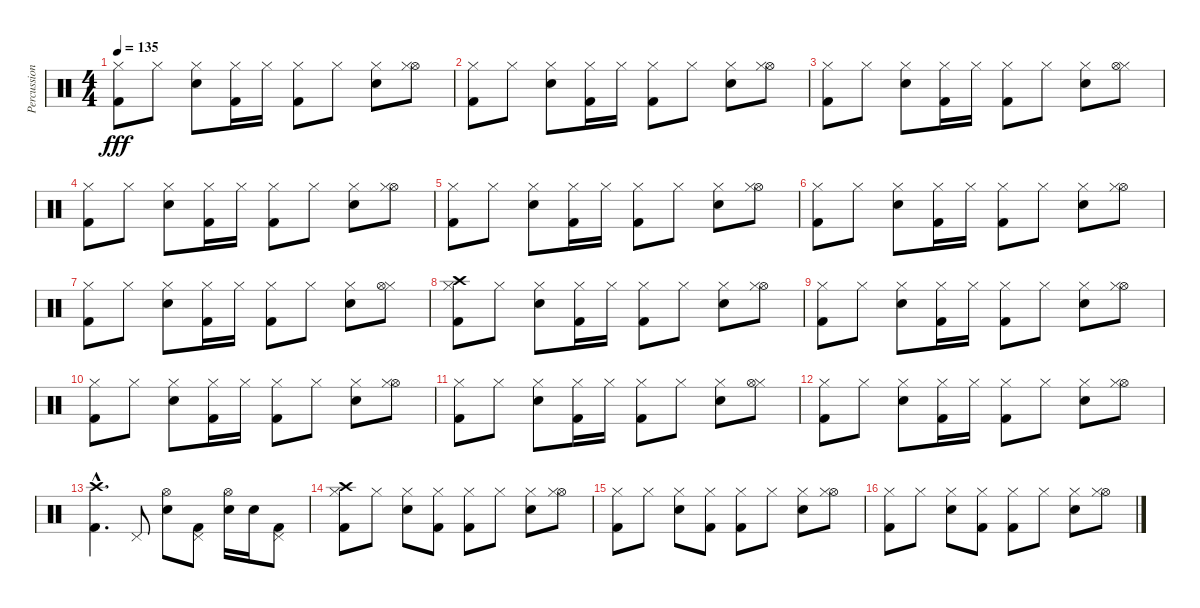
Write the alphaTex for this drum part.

\track ("Percussion" "Percussion") {instrument percussion}
\staff {score}
\articulation defaults
\ts (4 4)
\tempo 135
\clef neutral
\ks c
("Hi-Hat (closed)" "Kick (hit) 2").8{dy fff} "Hi-Hat (closed)".8 ("Hi-Hat (closed)" "Snare (hit) 2").8 ("Kick (hit) 2" "Hi-Hat (closed)").16 "Hi-Hat (closed)".16 ("Hi-Hat (closed)" "Kick (hit) 2").8 "Hi-Hat (closed)".8 ("Hi-Hat (closed)" "Snare (hit) 2").8 ("Hi-Hat (open)" "Hi-Hat (closed)").8 |
("Hi-Hat (closed)" "Kick (hit) 2").8 "Hi-Hat (closed)".8 ("Snare (hit) 2" "Hi-Hat (closed)").8 ("Hi-Hat (closed)" "Kick (hit) 2").16 "Hi-Hat (closed)".16 ("Hi-Hat (closed)" "Kick (hit) 2").8 "Hi-Hat (closed)".8 ("Hi-Hat (closed)" "Snare (hit) 2").8 ("Hi-Hat (open)" "Hi-Hat (closed)").8 |
("Hi-Hat (closed)" "Kick (hit) 2").8 "Hi-Hat (closed)".8 ("Hi-Hat (closed)" "Snare (hit) 2").8 ("Kick (hit) 2" "Hi-Hat (closed)").16 "Hi-Hat (closed)".16 ("Hi-Hat (closed)" "Kick (hit) 2").8 "Hi-Hat (closed)".8 ("Snare (hit) 2" "Hi-Hat (closed)").8 ("Hi-Hat (closed)" "Hi-Hat (open)").8 |
("Hi-Hat (closed)" "Kick (hit) 2").8 "Hi-Hat (closed)".8 ("Hi-Hat (closed)" "Snare (hit) 2").8 ("Hi-Hat (closed)" "Kick (hit) 2").16 "Hi-Hat (closed)".16 ("Hi-Hat (closed)" "Kick (hit) 2").8 "Hi-Hat (closed)".8 ("Snare (hit) 2" "Hi-Hat (closed)").8 ("Hi-Hat (open)" "Hi-Hat (closed)").8 |
("Hi-Hat (closed)" "Kick (hit) 2").8 "Hi-Hat (closed)".8 ("Hi-Hat (closed)" "Snare (hit) 2").8 ("Kick (hit) 2" "Hi-Hat (closed)").16 "Hi-Hat (closed)".16 ("Hi-Hat (closed)" "Kick (hit) 2").8 "Hi-Hat (closed)".8 ("Hi-Hat (closed)" "Snare (hit) 2").8 ("Hi-Hat (open)" "Hi-Hat (closed)").8 |
("Hi-Hat (closed)" "Kick (hit) 2").8 "Hi-Hat (closed)".8 ("Snare (hit) 2" "Hi-Hat (closed)").8 ("Hi-Hat (closed)" "Kick (hit) 2").16 "Hi-Hat (closed)".16 ("Hi-Hat (closed)" "Kick (hit) 2").8 "Hi-Hat (closed)".8 ("Hi-Hat (closed)" "Snare (hit) 2").8 ("Hi-Hat (open)" "Hi-Hat (closed)").8 |
("Hi-Hat (closed)" "Kick (hit) 2").8 "Hi-Hat (closed)".8 ("Hi-Hat (closed)" "Snare (hit) 2").8 ("Kick (hit) 2" "Hi-Hat (closed)").16 "Hi-Hat (closed)".16 ("Hi-Hat (closed)" "Kick (hit) 2").8 "Hi-Hat (closed)".8 ("Snare (hit) 2" "Hi-Hat (closed)").8 ("Hi-Hat (closed)" "Hi-Hat (open)").8 |
("Crash high (hit)" "Hi-Hat (closed)" "Kick (hit) 2").8 "Hi-Hat (closed)".8 ("Hi-Hat (closed)" "Snare (hit) 2").8 ("Hi-Hat (closed)" "Kick (hit) 2").16 "Hi-Hat (closed)".16 ("Hi-Hat (closed)" "Kick (hit) 2").8 "Hi-Hat (closed)".8 ("Snare (hit) 2" "Hi-Hat (closed)").8 ("Hi-Hat (open)" "Hi-Hat (closed)").8 |
("Hi-Hat (closed)" "Kick (hit) 2").8 "Hi-Hat (closed)".8 ("Hi-Hat (closed)" "Snare (hit) 2").8 ("Kick (hit) 2" "Hi-Hat (closed)").16 "Hi-Hat (closed)".16 ("Hi-Hat (closed)" "Kick (hit) 2").8 "Hi-Hat (closed)".8 ("Hi-Hat (closed)" "Snare (hit) 2").8 ("Hi-Hat (open)" "Hi-Hat (closed)").8 |
("Hi-Hat (closed)" "Kick (hit) 2").8 "Hi-Hat (closed)".8 ("Snare (hit) 2" "Hi-Hat (closed)").8 ("Hi-Hat (closed)" "Kick (hit) 2").16 "Hi-Hat (closed)".16 ("Hi-Hat (closed)" "Kick (hit) 2").8 "Hi-Hat (closed)".8 ("Hi-Hat (closed)" "Snare (hit) 2").8 ("Hi-Hat (open)" "Hi-Hat (closed)").8 |
("Hi-Hat (closed)" "Kick (hit) 2").8 "Hi-Hat (closed)".8 ("Hi-Hat (closed)" "Snare (hit) 2").8 ("Kick (hit) 2" "Hi-Hat (closed)").16 "Hi-Hat (closed)".16 ("Hi-Hat (closed)" "Kick (hit) 2").8 "Hi-Hat (closed)".8 ("Snare (hit) 2" "Hi-Hat (closed)").8 ("Hi-Hat (closed)" "Hi-Hat (open)").8 |
("Hi-Hat (closed)" "Kick (hit) 2").8 "Hi-Hat (closed)".8 ("Hi-Hat (closed)" "Snare (hit) 2").8 ("Hi-Hat (closed)" "Kick (hit) 2").16 "Hi-Hat (closed)".16 ("Hi-Hat (closed)" "Kick (hit) 2").8 "Hi-Hat (closed)".8 ("Snare (hit) 2" "Hi-Hat (closed)").8 ("Hi-Hat (open)" "Hi-Hat (closed)").8 |
("Crash high (hit)"{hac} "Kick (hit) 2"{hac}).4{d} "Pedal Hi-Hat (hit)".8 ("Snare (hit) 2" "Hi-Hat (open)").8 ("Kick (hit) 2" "Pedal Hi-Hat (hit)").8 ("Hi-Hat (open)" "Snare (hit) 2").16 "Snare (hit) 2".16 ("Kick (hit) 2" "Pedal Hi-Hat (hit)").8 |
("Crash high (hit)" "Hi-Hat (closed)" "Kick (hit) 2").8 "Hi-Hat (closed)".8 ("Hi-Hat (closed)" "Snare (hit) 2").8 ("Hi-Hat (closed)" "Kick (hit) 2").8 ("Hi-Hat (closed)" "Kick (hit) 2").8 "Hi-Hat (closed)".8 ("Snare (hit) 2" "Hi-Hat (closed)").8 ("Hi-Hat (open)" "Hi-Hat (closed)").8 |
("Hi-Hat (closed)" "Kick (hit) 2").8 "Hi-Hat (closed)".8 ("Hi-Hat (closed)" "Snare (hit) 2").8 ("Kick (hit) 2" "Hi-Hat (closed)").8 ("Hi-Hat (closed)" "Kick (hit) 2").8 "Hi-Hat (closed)".8 ("Hi-Hat (closed)" "Snare (hit) 2").8 ("Hi-Hat (open)" "Hi-Hat (closed)").8 |
("Hi-Hat (closed)" "Kick (hit) 2").8 "Hi-Hat (closed)".8 ("Snare (hit) 2" "Hi-Hat (closed)").8 ("Hi-Hat (closed)" "Kick (hit) 2").8 ("Hi-Hat (closed)" "Kick (hit) 2").8 "Hi-Hat (closed)".8 ("Hi-Hat (closed)" "Snare (hit) 2").8 ("Hi-Hat (open)" "Hi-Hat (closed)").8
